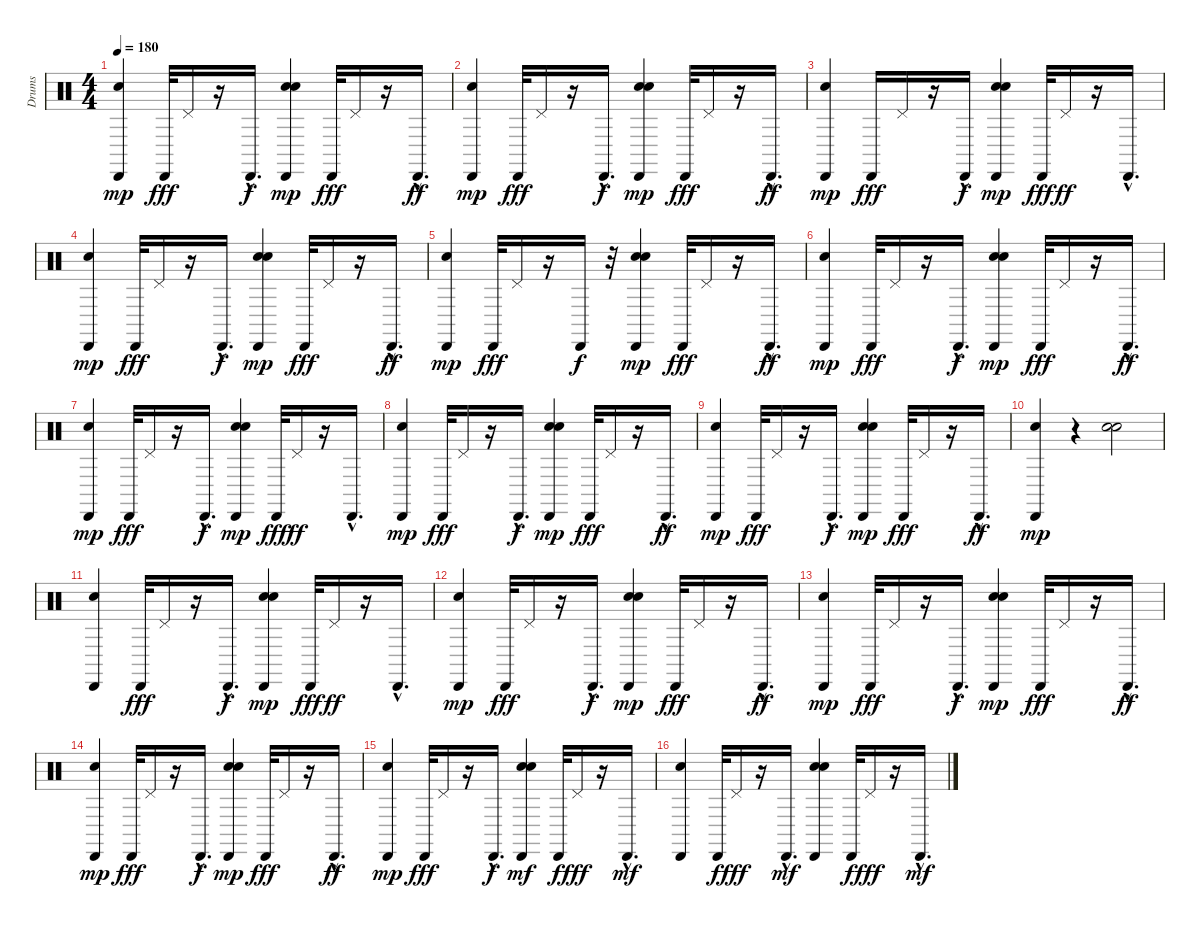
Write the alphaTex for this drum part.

\track ("Drums" "Drums") {instrument percussion}
\staff {score}
\articulation defaults
\ts (4 4)
\tempo 180
\clef neutral
\ks c
("Snare (hit) 2" "Cabasa (hit)").4{dy mp} "Cabasa (hit)".32{dy fff} "Pedal Hi-Hat (hit)".16 r.16 "Cabasa (hit)"{hac}.16{d dy f} ("Snare (hit) 2" "Snare (hit) 2" "Cabasa (hit)").4{dy mp} "Cabasa (hit)".32{dy fff} "Pedal Hi-Hat (hit)".16 r.16 "Cabasa (hit)"{hac}.16{d dy ff} |
("Snare (hit) 2" "Cabasa (hit)").4{dy mp} "Cabasa (hit)".32{dy fff} "Pedal Hi-Hat (hit)".16 r.16 "Cabasa (hit)"{hac}.16{d dy f} ("Snare (hit) 2" "Snare (hit) 2" "Cabasa (hit)").4{dy mp} "Cabasa (hit)".32{dy fff} "Pedal Hi-Hat (hit)".16 r.16 "Cabasa (hit)"{hac}.16{d dy ff} |
("Snare (hit) 2" "Cabasa (hit)").4{dy mp} "Cabasa (hit)".16{dy fff} "Pedal Hi-Hat (hit)".16 r.16 "Cabasa (hit)"{hac}.16{dy f} ("Snare (hit) 2" "Snare (hit) 2" "Cabasa (hit)").4{dy mp} "Cabasa (hit)".32{dy fff} "Pedal Hi-Hat (hit)".16{dy ff} r.16 "Cabasa (hit)"{hac}.16{d} |
("Snare (hit) 2" "Cabasa (hit)").4{dy mp} "Cabasa (hit)".32{dy fff} "Pedal Hi-Hat (hit)".16 r.16 "Cabasa (hit)"{hac}.16{d dy f} ("Snare (hit) 2" "Snare (hit) 2" "Cabasa (hit)").4{dy mp} "Cabasa (hit)".32{dy fff} "Pedal Hi-Hat (hit)".16 r.16 "Cabasa (hit)"{hac}.16{d dy ff} |
("Snare (hit) 2" "Cabasa (hit)").4{dy mp} "Cabasa (hit)".32{dy fff} "Pedal Hi-Hat (hit)".16 r.16 "Cabasa (hit)".16{dy f} r.32 ("Snare (hit) 2" "Snare (hit) 2" "Cabasa (hit)").4{dy mp} "Cabasa (hit)".32{dy fff} "Pedal Hi-Hat (hit)".16 r.16 "Cabasa (hit)"{hac}.16{d dy ff} |
("Snare (hit) 2" "Cabasa (hit)").4{dy mp} "Cabasa (hit)".32{dy fff} "Pedal Hi-Hat (hit)".16 r.16 "Cabasa (hit)"{hac}.16{d dy f} ("Snare (hit) 2" "Snare (hit) 2" "Cabasa (hit)").4{dy mp} "Cabasa (hit)".32{dy fff} "Pedal Hi-Hat (hit)".16 r.16 "Cabasa (hit)"{hac}.16{d dy ff} |
("Snare (hit) 2" "Cabasa (hit)").4{dy mp} "Cabasa (hit)".32{dy fff} "Pedal Hi-Hat (hit)".16 r.16 "Cabasa (hit)"{hac}.16{d dy f} ("Snare (hit) 2" "Snare (hit) 2" "Cabasa (hit)").4{dy mp} "Cabasa (hit)".32{dy fff} "Pedal Hi-Hat (hit)".16{dy ff} r.16 "Cabasa (hit)"{hac}.16{d} |
("Snare (hit) 2" "Cabasa (hit)").4{dy mp} "Cabasa (hit)".32{dy fff} "Pedal Hi-Hat (hit)".16 r.16 "Cabasa (hit)"{hac}.16{d dy f} ("Snare (hit) 2" "Snare (hit) 2" "Cabasa (hit)").4{dy mp} "Cabasa (hit)".32{dy fff} "Pedal Hi-Hat (hit)".16 r.16 "Cabasa (hit)"{hac}.16{d dy ff} |
("Snare (hit) 2" "Cabasa (hit)").4{dy mp} "Cabasa (hit)".32{dy fff} "Pedal Hi-Hat (hit)".16 r.16 "Cabasa (hit)"{hac}.16{d dy f} ("Snare (hit) 2" "Snare (hit) 2" "Cabasa (hit)").4{dy mp} "Cabasa (hit)".32{dy fff} "Pedal Hi-Hat (hit)".16 r.16 "Cabasa (hit)"{hac}.16{d dy ff} |
("Snare (hit) 2" "Cabasa (hit)").4{dy mp} r.4 ("Snare (hit) 2" "Snare (hit) 2").2 |
("Snare (hit) 2" "Cabasa (hit)").4 "Cabasa (hit)".32{dy fff} "Pedal Hi-Hat (hit)".16 r.16 "Cabasa (hit)"{hac}.16{d dy f} ("Snare (hit) 2" "Snare (hit) 2" "Cabasa (hit)").4{dy mp} "Cabasa (hit)".32{dy fff} "Pedal Hi-Hat (hit)".16{dy ff} r.16 "Cabasa (hit)"{hac}.16{d} |
("Snare (hit) 2" "Cabasa (hit)").4{dy mp} "Cabasa (hit)".32{dy fff} "Pedal Hi-Hat (hit)".16 r.16 "Cabasa (hit)"{hac}.16{d dy f} ("Snare (hit) 2" "Snare (hit) 2" "Cabasa (hit)").4{dy mp} "Cabasa (hit)".32{dy fff} "Pedal Hi-Hat (hit)".16 r.16 "Cabasa (hit)"{hac}.16{d dy ff} |
("Snare (hit) 2" "Cabasa (hit)").4{dy mp} "Cabasa (hit)".32{dy fff} "Pedal Hi-Hat (hit)".16 r.16 "Cabasa (hit)"{hac}.16{d dy f} ("Snare (hit) 2" "Snare (hit) 2" "Cabasa (hit)").4{dy mp} "Cabasa (hit)".32{dy fff} "Pedal Hi-Hat (hit)".16 r.16 "Cabasa (hit)"{hac}.16{d dy ff} |
("Snare (hit) 2" "Cabasa (hit)").4{dy mp} "Cabasa (hit)".32{dy fff} "Pedal Hi-Hat (hit)".16 r.16 "Cabasa (hit)"{hac}.16{d dy f} ("Snare (hit) 2" "Snare (hit) 2" "Cabasa (hit)").4{dy mp} "Cabasa (hit)".32{dy fff} "Pedal Hi-Hat (hit)".16 r.16 "Cabasa (hit)"{hac}.16{d dy ff} |
("Snare (hit) 2" "Cabasa (hit)").4{dy mp} "Cabasa (hit)".32{dy fff} "Pedal Hi-Hat (hit)".16 r.16 "Cabasa (hit)"{hac}.16{d dy f} ("Snare (hit) 2" "Snare (hit) 2" "Cabasa (hit)").4{dy mf} "Cabasa (hit)".32{dy f} "Pedal Hi-Hat (hit)".16{dy fff} r.16 "Cabasa (hit)"{hac}.16{d dy mf} |
("Snare (hit) 2" "Cabasa (hit)").4 "Cabasa (hit)".32{dy f} "Pedal Hi-Hat (hit)".16{dy fff} r.16 "Cabasa (hit)"{hac}.16{d dy mf} ("Snare (hit) 2" "Snare (hit) 2" "Cabasa (hit)").4 "Cabasa (hit)".32{dy f} "Pedal Hi-Hat (hit)".16{dy fff} r.16 "Cabasa (hit)"{hac}.16{d dy mf}
